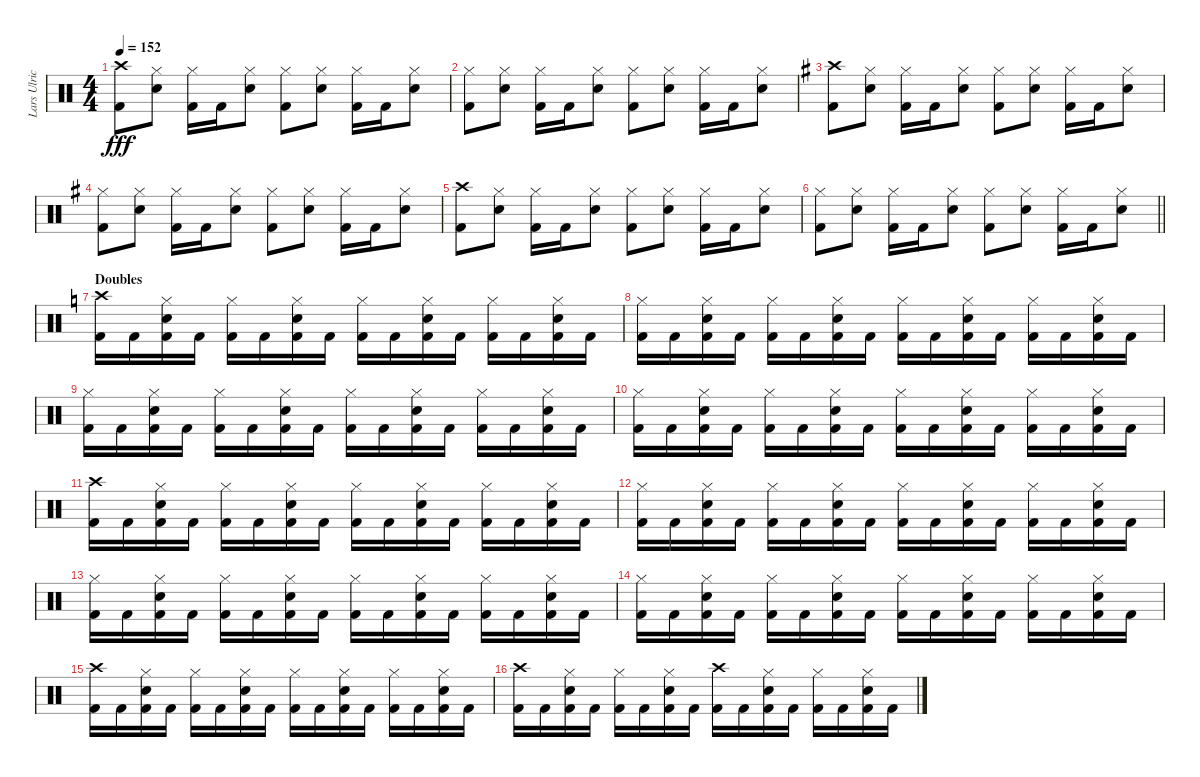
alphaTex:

\track ("Lars Ulrich" "Lars Ulric") {instrument percussion}
\staff {score}
\articulation defaults
\ts (4 4)
\tempo 152
\clef neutral
\ks c
("Crash high (hit)" "Kick (hit) 2").8{dy fff} ("Hi-Hat (closed)" "Snare (hit) 2").8 ("Hi-Hat (closed)" "Kick (hit) 2").16 "Kick (hit) 2".16 ("Hi-Hat (closed)" "Snare (hit) 2").8 ("Hi-Hat (closed)" "Kick (hit) 2").8 ("Hi-Hat (closed)" "Snare (hit) 2").8 ("Hi-Hat (closed)" "Kick (hit) 2").16 "Kick (hit) 2".16 ("Hi-Hat (closed)" "Snare (hit) 2").8 |
("Hi-Hat (closed)" "Kick (hit) 2").8 ("Hi-Hat (closed)" "Snare (hit) 2").8 ("Hi-Hat (closed)" "Kick (hit) 2").16 "Kick (hit) 2".16 ("Hi-Hat (closed)" "Snare (hit) 2").8 ("Hi-Hat (closed)" "Kick (hit) 2").8 ("Hi-Hat (closed)" "Snare (hit) 2").8 ("Hi-Hat (closed)" "Kick (hit) 2").16 "Kick (hit) 2".16 ("Hi-Hat (closed)" "Snare (hit) 2").8 |
\ks g
("Crash high (hit)" "Kick (hit) 2").8 ("Hi-Hat (closed)" "Snare (hit) 2").8 ("Hi-Hat (closed)" "Kick (hit) 2").16 "Kick (hit) 2".16 ("Hi-Hat (closed)" "Snare (hit) 2").8 ("Hi-Hat (closed)" "Kick (hit) 2").8 ("Hi-Hat (closed)" "Snare (hit) 2").8 ("Hi-Hat (closed)" "Kick (hit) 2").16 "Kick (hit) 2".16 ("Hi-Hat (closed)" "Snare (hit) 2").8 |
("Hi-Hat (closed)" "Kick (hit) 2").8 ("Hi-Hat (closed)" "Snare (hit) 2").8 ("Hi-Hat (closed)" "Kick (hit) 2").16 "Kick (hit) 2".16 ("Hi-Hat (closed)" "Snare (hit) 2").8 ("Hi-Hat (closed)" "Kick (hit) 2").8 ("Hi-Hat (closed)" "Snare (hit) 2").8 ("Hi-Hat (closed)" "Kick (hit) 2").16 "Kick (hit) 2".16 ("Hi-Hat (closed)" "Snare (hit) 2").8 |
("Crash high (hit)" "Kick (hit) 2").8 ("Hi-Hat (closed)" "Snare (hit) 2").8 ("Hi-Hat (closed)" "Kick (hit) 2").16 "Kick (hit) 2".16 ("Hi-Hat (closed)" "Snare (hit) 2").8 ("Hi-Hat (closed)" "Kick (hit) 2").8 ("Hi-Hat (closed)" "Snare (hit) 2").8 ("Hi-Hat (closed)" "Kick (hit) 2").16 "Kick (hit) 2".16 ("Hi-Hat (closed)" "Snare (hit) 2").8 |
\barLineRight lightlight
("Hi-Hat (closed)" "Kick (hit) 2").8 ("Hi-Hat (closed)" "Snare (hit) 2").8 ("Hi-Hat (closed)" "Kick (hit) 2").16 "Kick (hit) 2".16 ("Hi-Hat (closed)" "Snare (hit) 2").8 ("Hi-Hat (closed)" "Kick (hit) 2").8 ("Hi-Hat (closed)" "Snare (hit) 2").8 ("Hi-Hat (closed)" "Kick (hit) 2").16 "Kick (hit) 2".16 ("Hi-Hat (closed)" "Snare (hit) 2").8 |
\section ("" "Doubles")
\ks c
("Crash high (hit)" "Kick (hit) 2").16 "Kick (hit) 2".16 ("Hi-Hat (closed)" "Snare (hit) 2" "Kick (hit) 2").16 "Kick (hit) 2".16 ("Hi-Hat (closed)" "Kick (hit) 2").16 "Kick (hit) 2".16 ("Hi-Hat (closed)" "Snare (hit) 2" "Kick (hit) 2").16 "Kick (hit) 2".16 ("Hi-Hat (closed)" "Kick (hit) 2").16 "Kick (hit) 2".16 ("Hi-Hat (closed)" "Snare (hit) 2" "Kick (hit) 2").16 "Kick (hit) 2".16 ("Hi-Hat (closed)" "Kick (hit) 2").16 "Kick (hit) 2".16 ("Hi-Hat (closed)" "Snare (hit) 2" "Kick (hit) 2").16 "Kick (hit) 2".16 |
("Hi-Hat (closed)" "Kick (hit) 2").16 "Kick (hit) 2".16 ("Hi-Hat (closed)" "Snare (hit) 2" "Kick (hit) 2").16 "Kick (hit) 2".16 ("Hi-Hat (closed)" "Kick (hit) 2").16 "Kick (hit) 2".16 ("Hi-Hat (closed)" "Snare (hit) 2" "Kick (hit) 2").16 "Kick (hit) 2".16 ("Hi-Hat (closed)" "Kick (hit) 2").16 "Kick (hit) 2".16 ("Hi-Hat (closed)" "Snare (hit) 2" "Kick (hit) 2").16 "Kick (hit) 2".16 ("Hi-Hat (closed)" "Kick (hit) 2").16 "Kick (hit) 2".16 ("Hi-Hat (closed)" "Snare (hit) 2" "Kick (hit) 2").16 "Kick (hit) 2".16 |
("Hi-Hat (closed)" "Kick (hit) 2").16 "Kick (hit) 2".16 ("Hi-Hat (closed)" "Snare (hit) 2" "Kick (hit) 2").16 "Kick (hit) 2".16 ("Hi-Hat (closed)" "Kick (hit) 2").16 "Kick (hit) 2".16 ("Hi-Hat (closed)" "Snare (hit) 2" "Kick (hit) 2").16 "Kick (hit) 2".16 ("Hi-Hat (closed)" "Kick (hit) 2").16 "Kick (hit) 2".16 ("Hi-Hat (closed)" "Snare (hit) 2" "Kick (hit) 2").16 "Kick (hit) 2".16 ("Hi-Hat (closed)" "Kick (hit) 2").16 "Kick (hit) 2".16 ("Hi-Hat (closed)" "Snare (hit) 2" "Kick (hit) 2").16 "Kick (hit) 2".16 |
("Hi-Hat (closed)" "Kick (hit) 2").16 "Kick (hit) 2".16 ("Hi-Hat (closed)" "Snare (hit) 2" "Kick (hit) 2").16 "Kick (hit) 2".16 ("Hi-Hat (closed)" "Kick (hit) 2").16 "Kick (hit) 2".16 ("Hi-Hat (closed)" "Snare (hit) 2" "Kick (hit) 2").16 "Kick (hit) 2".16 ("Hi-Hat (closed)" "Kick (hit) 2").16 "Kick (hit) 2".16 ("Hi-Hat (closed)" "Snare (hit) 2" "Kick (hit) 2").16 "Kick (hit) 2".16 ("Hi-Hat (closed)" "Kick (hit) 2").16 "Kick (hit) 2".16 ("Hi-Hat (closed)" "Snare (hit) 2" "Kick (hit) 2").16 "Kick (hit) 2".16 |
("Crash high (hit)" "Kick (hit) 2").16 "Kick (hit) 2".16 ("Hi-Hat (closed)" "Snare (hit) 2" "Kick (hit) 2").16 "Kick (hit) 2".16 ("Hi-Hat (closed)" "Kick (hit) 2").16 "Kick (hit) 2".16 ("Hi-Hat (closed)" "Snare (hit) 2" "Kick (hit) 2").16 "Kick (hit) 2".16 ("Hi-Hat (closed)" "Kick (hit) 2").16 "Kick (hit) 2".16 ("Hi-Hat (closed)" "Snare (hit) 2" "Kick (hit) 2").16 "Kick (hit) 2".16 ("Hi-Hat (closed)" "Kick (hit) 2").16 "Kick (hit) 2".16 ("Hi-Hat (closed)" "Snare (hit) 2" "Kick (hit) 2").16 "Kick (hit) 2".16 |
("Hi-Hat (closed)" "Kick (hit) 2").16 "Kick (hit) 2".16 ("Hi-Hat (closed)" "Snare (hit) 2" "Kick (hit) 2").16 "Kick (hit) 2".16 ("Hi-Hat (closed)" "Kick (hit) 2").16 "Kick (hit) 2".16 ("Hi-Hat (closed)" "Snare (hit) 2" "Kick (hit) 2").16 "Kick (hit) 2".16 ("Hi-Hat (closed)" "Kick (hit) 2").16 "Kick (hit) 2".16 ("Hi-Hat (closed)" "Snare (hit) 2" "Kick (hit) 2").16 "Kick (hit) 2".16 ("Hi-Hat (closed)" "Kick (hit) 2").16 "Kick (hit) 2".16 ("Hi-Hat (closed)" "Snare (hit) 2" "Kick (hit) 2").16 "Kick (hit) 2".16 |
("Hi-Hat (closed)" "Kick (hit) 2").16 "Kick (hit) 2".16 ("Hi-Hat (closed)" "Snare (hit) 2" "Kick (hit) 2").16 "Kick (hit) 2".16 ("Hi-Hat (closed)" "Kick (hit) 2").16 "Kick (hit) 2".16 ("Hi-Hat (closed)" "Snare (hit) 2" "Kick (hit) 2").16 "Kick (hit) 2".16 ("Hi-Hat (closed)" "Kick (hit) 2").16 "Kick (hit) 2".16 ("Hi-Hat (closed)" "Snare (hit) 2" "Kick (hit) 2").16 "Kick (hit) 2".16 ("Hi-Hat (closed)" "Kick (hit) 2").16 "Kick (hit) 2".16 ("Hi-Hat (closed)" "Snare (hit) 2" "Kick (hit) 2").16 "Kick (hit) 2".16 |
("Hi-Hat (closed)" "Kick (hit) 2").16 "Kick (hit) 2".16 ("Hi-Hat (closed)" "Snare (hit) 2" "Kick (hit) 2").16 "Kick (hit) 2".16 ("Hi-Hat (closed)" "Kick (hit) 2").16 "Kick (hit) 2".16 ("Hi-Hat (closed)" "Snare (hit) 2" "Kick (hit) 2").16 "Kick (hit) 2".16 ("Hi-Hat (closed)" "Kick (hit) 2").16 "Kick (hit) 2".16 ("Hi-Hat (closed)" "Snare (hit) 2" "Kick (hit) 2").16 "Kick (hit) 2".16 ("Hi-Hat (closed)" "Kick (hit) 2").16 "Kick (hit) 2".16 ("Hi-Hat (closed)" "Snare (hit) 2" "Kick (hit) 2").16 "Kick (hit) 2".16 |
("Crash high (hit)" "Kick (hit) 2").16 "Kick (hit) 2".16 ("Hi-Hat (closed)" "Snare (hit) 2" "Kick (hit) 2").16 "Kick (hit) 2".16 ("Hi-Hat (closed)" "Kick (hit) 2").16 "Kick (hit) 2".16 ("Hi-Hat (closed)" "Snare (hit) 2" "Kick (hit) 2").16 "Kick (hit) 2".16 ("Hi-Hat (closed)" "Kick (hit) 2").16 "Kick (hit) 2".16 ("Hi-Hat (closed)" "Snare (hit) 2" "Kick (hit) 2").16 "Kick (hit) 2".16 ("Hi-Hat (closed)" "Kick (hit) 2").16 "Kick (hit) 2".16 ("Hi-Hat (closed)" "Snare (hit) 2" "Kick (hit) 2").16 "Kick (hit) 2".16 |
("Crash high (hit)" "Kick (hit) 2").16 "Kick (hit) 2".16 ("Hi-Hat (closed)" "Snare (hit) 2" "Kick (hit) 2").16 "Kick (hit) 2".16 ("Hi-Hat (closed)" "Kick (hit) 2").16 "Kick (hit) 2".16 ("Hi-Hat (closed)" "Snare (hit) 2" "Kick (hit) 2").16 "Kick (hit) 2".16 ("Crash high (hit)" "Kick (hit) 2").16 "Kick (hit) 2".16 ("Hi-Hat (closed)" "Snare (hit) 2" "Kick (hit) 2").16 "Kick (hit) 2".16 ("Hi-Hat (closed)" "Kick (hit) 2").16 "Kick (hit) 2".16 ("Hi-Hat (closed)" "Snare (hit) 2" "Kick (hit) 2").16 "Kick (hit) 2".16
